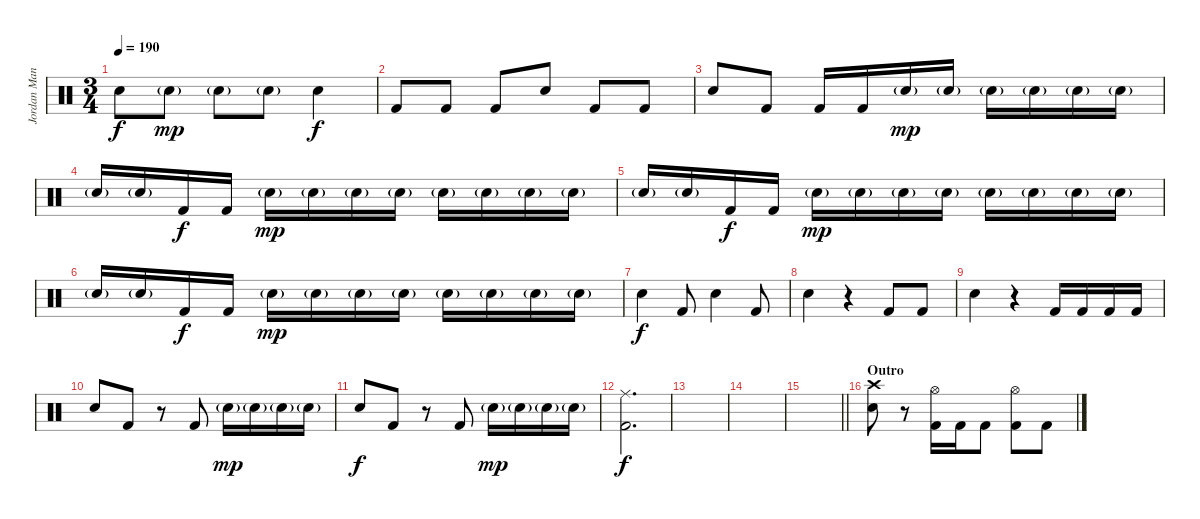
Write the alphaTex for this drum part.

\track ("Jordan Mancino" "Jordan Man") {instrument percussion}
\staff {score}
\articulation defaults
\ts (3 4)
\tempo 190
\clef neutral
\ks c "Electric Snare (hit)".8{dy f} "Electric Snare (hit)"{g}.8{dy mp} "Electric Snare (hit)"{g}.8 "Electric Snare (hit)"{g}.8 "Electric Snare (hit)".4{dy f}
|
"Kick (hit) 2".8 "Kick (hit) 2".8 "Kick (hit) 2".8 "Electric Snare (hit)".8 "Kick (hit) 2".8 "Kick (hit) 2".8 |
"Electric Snare (hit)".8 "Kick (hit) 2".8 "Kick (hit) 2".16 "Kick (hit) 2".16 "Electric Snare (hit)"{g}.16{dy mp} "Electric Snare (hit)"{g}.16 "Electric Snare (hit)"{g}.16 "Electric Snare (hit)"{g}.16 "Electric Snare (hit)"{g}.16 "Electric Snare (hit)"{g}.16 |
"Electric Snare (hit)"{g}.16 "Electric Snare (hit)"{g}.16 "Kick (hit) 2".16{dy f} "Kick (hit) 2".16 "Electric Snare (hit)"{g}.16{dy mp} "Electric Snare (hit)"{g}.16 "Electric Snare (hit)"{g}.16 "Electric Snare (hit)"{g}.16 "Electric Snare (hit)"{g}.16 "Electric Snare (hit)"{g}.16 "Electric Snare (hit)"{g}.16 "Electric Snare (hit)"{g}.16 |
"Electric Snare (hit)"{g}.16 "Electric Snare (hit)"{g}.16 "Kick (hit) 2".16{dy f} "Kick (hit) 2".16 "Electric Snare (hit)"{g}.16{dy mp} "Electric Snare (hit)"{g}.16 "Electric Snare (hit)"{g}.16 "Electric Snare (hit)"{g}.16 "Electric Snare (hit)"{g}.16 "Electric Snare (hit)"{g}.16 "Electric Snare (hit)"{g}.16 "Electric Snare (hit)"{g}.16 |
"Electric Snare (hit)"{g}.16 "Electric Snare (hit)"{g}.16 "Kick (hit) 2".16{dy f} "Kick (hit) 2".16 "Electric Snare (hit)"{g}.16{dy mp} "Electric Snare (hit)"{g}.16 "Electric Snare (hit)"{g}.16 "Electric Snare (hit)"{g}.16 "Electric Snare (hit)"{g}.16 "Electric Snare (hit)"{g}.16 "Electric Snare (hit)"{g}.16 "Electric Snare (hit)"{g}.16 |
"Electric Snare (hit)".4{dy f} "Kick (hit) 2".8 "Electric Snare (hit)".4 "Kick (hit) 2".8 |
"Electric Snare (hit)".4 r.4 "Kick (hit) 2".8 "Kick (hit) 2".8 |
"Electric Snare (hit)".4 r.4 "Kick (hit) 2".16 "Kick (hit) 2".16 "Kick (hit) 2".16 "Kick (hit) 2".16 |
"Electric Snare (hit)".8 "Kick (hit) 2".8 r.8 "Kick (hit) 2".8 "Electric Snare (hit)"{g}.16{dy mp} "Electric Snare (hit)"{g}.16 "Electric Snare (hit)"{g}.16 "Electric Snare (hit)"{g}.16 |
"Electric Snare (hit)".8{dy f} "Kick (hit) 2".8 r.8 "Kick (hit) 2".8 "Electric Snare (hit)"{g}.16{dy mp} "Electric Snare (hit)"{g}.16 "Electric Snare (hit)"{g}.16 "Electric Snare (hit)"{g}.16 |
("Ride (middle)" "Kick (hit) 2").2{d dy f} |
|
|
\barLineRight lightlight
|
\section ("" "Outro")
("Crash high (hit)" "Electric Snare (hit)").8 r.8 ("Hi-Hat (open)" "Kick (hit) 2").16 "Kick (hit) 2".16 "Kick (hit) 2".8 ("Hi-Hat (open)" "Kick (hit) 2").8 "Kick (hit) 2".8
